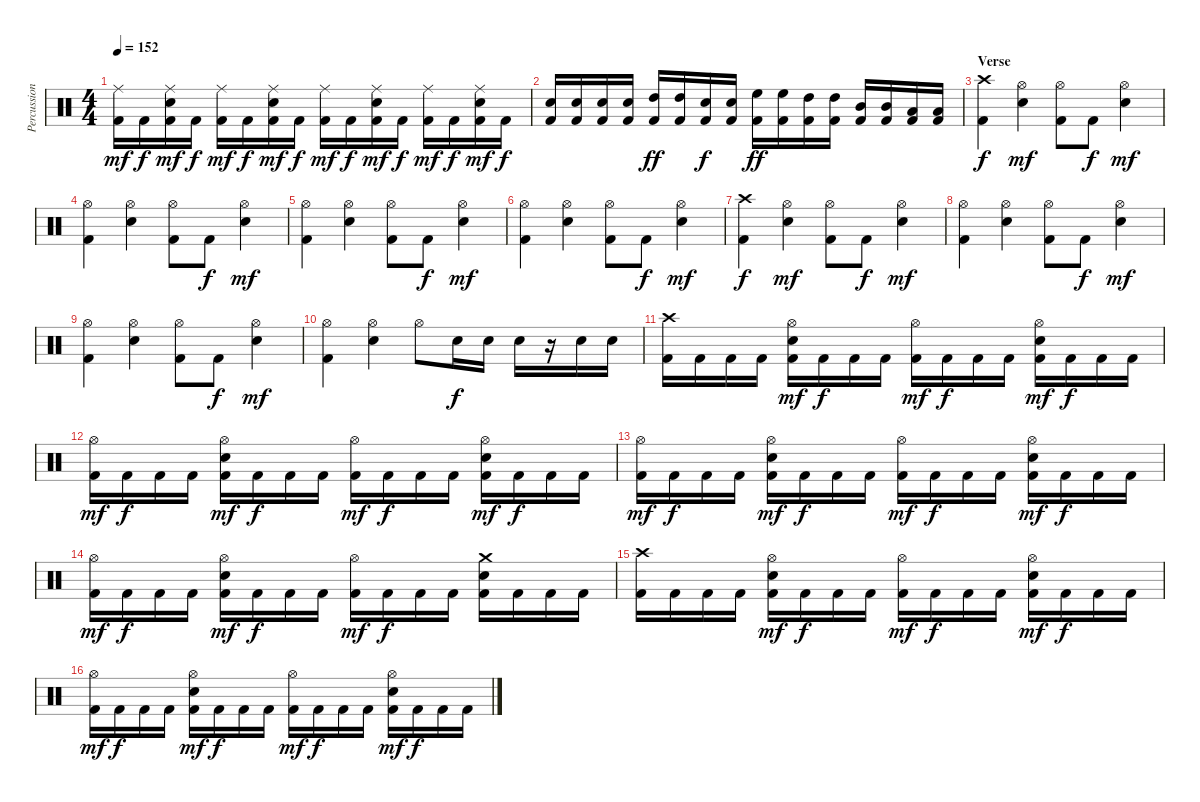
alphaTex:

\track ("Percussion" "Percussion") {instrument percussion}
\staff {score}
\articulation defaults
\ts (4 4)
\tempo 152
\clef neutral
\ks c
("Ride (middle)" "Kick (hit) 2").16{dy mf} "Kick (hit) 2".16{dy f} ("Ride (middle)" "Electric Snare (hit)" "Kick (hit) 2").16{dy mf} "Kick (hit) 2".16{dy f} ("Ride (middle)" "Kick (hit) 2").16{dy mf} "Kick (hit) 2".16{dy f} ("Ride (middle)" "Electric Snare (hit)" "Kick (hit) 2").16{dy mf} "Kick (hit) 2".16{dy f} ("Ride (middle)" "Kick (hit) 2").16{dy mf} "Kick (hit) 2".16{dy f} ("Ride (middle)" "Electric Snare (hit)" "Kick (hit) 2").16{dy mf} "Kick (hit) 2".16{dy f} ("Ride (middle)" "Kick (hit) 2").16{dy mf} "Kick (hit) 2".16{dy f} ("Ride (middle)" "Electric Snare (hit)" "Kick (hit) 2").16{dy mf} "Kick (hit) 2".16{dy f} |
("Electric Snare (hit)" "Kick (hit) 2").16 ("Electric Snare (hit)" "Kick (hit) 2").16 ("Electric Snare (hit)" "Kick (hit) 2").16 ("Electric Snare (hit)" "Kick (hit) 2").16 ("High Tom (hit)" "Kick (hit) 2").16{dy ff} ("High Tom (hit)" "Kick (hit) 2").16 ("Electric Snare (hit)" "Kick (hit) 2").16{dy f} ("Electric Snare (hit)" "Kick (hit) 2").16 ("High Floor Tom (hit)" "Kick (hit) 2").16{dy ff} ("High Floor Tom (hit)" "Kick (hit) 2").16 ("High Tom (hit)" "Kick (hit) 2").16 ("High Tom (hit)" "Kick (hit) 2").16 ("Mid Tom (hit)" "Kick (hit) 2").16 ("Mid Tom (hit)" "Kick (hit) 2").16 ("Low Tom (hit)" "Kick (hit) 2").16 ("Low Tom (hit)" "Kick (hit) 2").16 |
\section ("" "Verse")
("Crash high (hit)" "Kick (hit) 2").4{dy f} ("Hi-Hat (open)" "Electric Snare (hit)").4{dy mf} ("Hi-Hat (open)" "Kick (hit) 2").8 "Kick (hit) 2".8{dy f} ("Hi-Hat (open)" "Electric Snare (hit)").4{dy mf} |
("Hi-Hat (open)" "Kick (hit) 2").4 ("Hi-Hat (open)" "Electric Snare (hit)").4 ("Hi-Hat (open)" "Kick (hit) 2").8 "Kick (hit) 2".8{dy f} ("Hi-Hat (open)" "Electric Snare (hit)").4{dy mf} |
("Hi-Hat (open)" "Kick (hit) 2").4 ("Hi-Hat (open)" "Electric Snare (hit)").4 ("Hi-Hat (open)" "Kick (hit) 2").8 "Kick (hit) 2".8{dy f} ("Hi-Hat (open)" "Electric Snare (hit)").4{dy mf} |
("Hi-Hat (open)" "Kick (hit) 2").4 ("Hi-Hat (open)" "Electric Snare (hit)").4 ("Hi-Hat (open)" "Kick (hit) 2").8 "Kick (hit) 2".8{dy f} ("Hi-Hat (open)" "Electric Snare (hit)").4{dy mf} |
("Crash high (hit)" "Kick (hit) 2").4{dy f} ("Hi-Hat (open)" "Electric Snare (hit)").4{dy mf} ("Hi-Hat (open)" "Kick (hit) 2").8 "Kick (hit) 2".8{dy f} ("Hi-Hat (open)" "Electric Snare (hit)").4{dy mf} |
("Hi-Hat (open)" "Kick (hit) 2").4 ("Hi-Hat (open)" "Electric Snare (hit)").4 ("Hi-Hat (open)" "Kick (hit) 2").8 "Kick (hit) 2".8{dy f} ("Hi-Hat (open)" "Electric Snare (hit)").4{dy mf} |
("Hi-Hat (open)" "Kick (hit) 2").4 ("Hi-Hat (open)" "Electric Snare (hit)").4 ("Hi-Hat (open)" "Kick (hit) 2").8 "Kick (hit) 2".8{dy f} ("Hi-Hat (open)" "Electric Snare (hit)").4{dy mf} |
("Hi-Hat (open)" "Kick (hit) 2").4 ("Hi-Hat (open)" "Electric Snare (hit)").4 "Hi-Hat (open)".8 "Electric Snare (hit)".16{dy f} "Electric Snare (hit)".16 "Electric Snare (hit)".16 r.16 "Electric Snare (hit)".16 "Electric Snare (hit)".16 |
("Crash high (hit)" "Kick (hit) 2").16 "Kick (hit) 2".16 "Kick (hit) 2".16 "Kick (hit) 2".16 ("Hi-Hat (open)" "Electric Snare (hit)" "Kick (hit) 2").16{dy mf} "Kick (hit) 2".16{dy f} "Kick (hit) 2".16 "Kick (hit) 2".16 ("Hi-Hat (open)" "Kick (hit) 2").16{dy mf} "Kick (hit) 2".16{dy f} "Kick (hit) 2".16 "Kick (hit) 2".16 ("Hi-Hat (open)" "Electric Snare (hit)" "Kick (hit) 2").16{dy mf} "Kick (hit) 2".16{dy f} "Kick (hit) 2".16 "Kick (hit) 2".16 |
("Hi-Hat (open)" "Kick (hit) 2").16{dy mf} "Kick (hit) 2".16{dy f} "Kick (hit) 2".16 "Kick (hit) 2".16 ("Hi-Hat (open)" "Electric Snare (hit)" "Kick (hit) 2").16{dy mf} "Kick (hit) 2".16{dy f} "Kick (hit) 2".16 "Kick (hit) 2".16 ("Hi-Hat (open)" "Kick (hit) 2").16{dy mf} "Kick (hit) 2".16{dy f} "Kick (hit) 2".16 "Kick (hit) 2".16 ("Hi-Hat (open)" "Electric Snare (hit)" "Kick (hit) 2").16{dy mf} "Kick (hit) 2".16{dy f} "Kick (hit) 2".16 "Kick (hit) 2".16 |
("Hi-Hat (open)" "Kick (hit) 2").16{dy mf} "Kick (hit) 2".16{dy f} "Kick (hit) 2".16 "Kick (hit) 2".16 ("Hi-Hat (open)" "Electric Snare (hit)" "Kick (hit) 2").16{dy mf} "Kick (hit) 2".16{dy f} "Kick (hit) 2".16 "Kick (hit) 2".16 ("Hi-Hat (open)" "Kick (hit) 2").16{dy mf} "Kick (hit) 2".16{dy f} "Kick (hit) 2".16 "Kick (hit) 2".16 ("Hi-Hat (open)" "Electric Snare (hit)" "Kick (hit) 2").16{dy mf} "Kick (hit) 2".16{dy f} "Kick (hit) 2".16 "Kick (hit) 2".16 |
("Hi-Hat (open)" "Kick (hit) 2").16{dy mf} "Kick (hit) 2".16{dy f} "Kick (hit) 2".16 "Kick (hit) 2".16 ("Hi-Hat (open)" "Electric Snare (hit)" "Kick (hit) 2").16{dy mf} "Kick (hit) 2".16{dy f} "Kick (hit) 2".16 "Kick (hit) 2".16 ("Hi-Hat (open)" "Kick (hit) 2").16{dy mf} "Kick (hit) 2".16{dy f} "Kick (hit) 2".16 "Kick (hit) 2".16 ("Crash medium (hit)" "Electric Snare (hit)" "Kick (hit) 2").16 "Kick (hit) 2".16 "Kick (hit) 2".16 "Kick (hit) 2".16 |
("Crash high (hit)" "Kick (hit) 2").16 "Kick (hit) 2".16 "Kick (hit) 2".16 "Kick (hit) 2".16 ("Hi-Hat (open)" "Electric Snare (hit)" "Kick (hit) 2").16{dy mf} "Kick (hit) 2".16{dy f} "Kick (hit) 2".16 "Kick (hit) 2".16 ("Hi-Hat (open)" "Kick (hit) 2").16{dy mf} "Kick (hit) 2".16{dy f} "Kick (hit) 2".16 "Kick (hit) 2".16 ("Hi-Hat (open)" "Electric Snare (hit)" "Kick (hit) 2").16{dy mf} "Kick (hit) 2".16{dy f} "Kick (hit) 2".16 "Kick (hit) 2".16 |
("Hi-Hat (open)" "Kick (hit) 2").16{dy mf} "Kick (hit) 2".16{dy f} "Kick (hit) 2".16 "Kick (hit) 2".16 ("Hi-Hat (open)" "Electric Snare (hit)" "Kick (hit) 2").16{dy mf} "Kick (hit) 2".16{dy f} "Kick (hit) 2".16 "Kick (hit) 2".16 ("Hi-Hat (open)" "Kick (hit) 2").16{dy mf} "Kick (hit) 2".16{dy f} "Kick (hit) 2".16 "Kick (hit) 2".16 ("Hi-Hat (open)" "Electric Snare (hit)" "Kick (hit) 2").16{dy mf} "Kick (hit) 2".16{dy f} "Kick (hit) 2".16 "Kick (hit) 2".16
